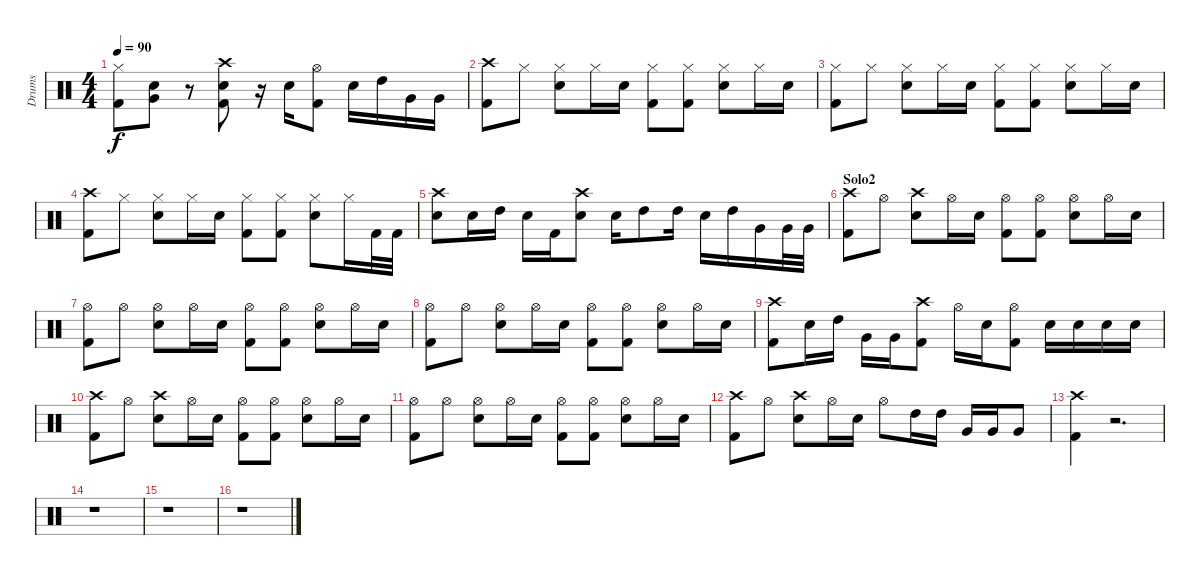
\track ("Drums" "Drums") {instrument percussion}
\staff {score}
\articulation defaults
\ts (4 4)
\tempo 90
\clef neutral
\ks c
("Hi-Hat (closed)" "Kick (hit) 2").8{dy f} ("Snare (hit) 2" "Very Low Tom (hit)").8 r.8 ("Crash high (hit)" "Snare (hit) 2" "Kick (hit) 2").8 r.16 "Snare (hit) 2".16 ("Hi-Hat (open)" "Kick (hit) 2").8 "Snare (hit) 2".16 "High Tom (hit)".16 "Very Low Tom (hit)".16 "Very Low Tom (hit)".16 |
("Crash high (hit)" "Kick (hit) 2").8 "Hi-Hat (closed)".8 ("Hi-Hat (closed)" "Snare (hit) 2").8 "Hi-Hat (closed)".16 "Snare (hit) 2".16 ("Hi-Hat (closed)" "Kick (hit) 2").8 ("Hi-Hat (closed)" "Kick (hit) 2").8 ("Hi-Hat (closed)" "Snare (hit) 2").8 "Hi-Hat (closed)".16 "Snare (hit) 2".16 |
("Hi-Hat (closed)" "Kick (hit) 2").8 "Hi-Hat (closed)".8 ("Hi-Hat (closed)" "Snare (hit) 2").8 "Hi-Hat (closed)".16 "Snare (hit) 2".16 ("Hi-Hat (closed)" "Kick (hit) 2").8 ("Hi-Hat (closed)" "Kick (hit) 2").8 ("Hi-Hat (closed)" "Snare (hit) 2").8 "Hi-Hat (closed)".16 "Snare (hit) 2".16 |
("Crash high (hit)" "Kick (hit) 2").8 "Hi-Hat (closed)".8 ("Hi-Hat (closed)" "Snare (hit) 2").8 "Hi-Hat (closed)".16 "Snare (hit) 2".16 ("Hi-Hat (closed)" "Kick (hit) 2").8 ("Hi-Hat (closed)" "Kick (hit) 2").8 ("Hi-Hat (closed)" "Snare (hit) 2").8 "Hi-Hat (closed)".16 "Kick (hit) 2".32 "Kick (hit) 2".32 |
("Crash high (hit)" "Snare (hit) 2").8 "Snare (hit) 2".16 "High Tom (hit)".16 "Snare (hit) 2".16 "Kick (hit) 2".16 ("Crash high (hit)" "Snare (hit) 2").8 "Snare (hit) 2".16 "High Tom (hit)".8 "High Tom (hit)".16 "Snare (hit) 2".16 "High Tom (hit)".16 "Very Low Tom (hit)".16 "Very Low Tom (hit)".32 "Very Low Tom (hit)".32 |
\section ("" "Solo2")
("Crash high (hit)" "Kick (hit) 2").8 "Hi-Hat (open)".8 ("Crash high (hit)" "Snare (hit) 2").8 "Hi-Hat (open)".16 "Snare (hit) 2".16 ("Hi-Hat (open)" "Kick (hit) 2").8 ("Hi-Hat (open)" "Kick (hit) 2").8 ("Hi-Hat (open)" "Snare (hit) 2").8 "Hi-Hat (open)".16 "Snare (hit) 2".16 |
("Hi-Hat (open)" "Kick (hit) 2").8 "Hi-Hat (open)".8 ("Hi-Hat (open)" "Snare (hit) 2").8 "Hi-Hat (open)".16 "Snare (hit) 2".16 ("Hi-Hat (open)" "Kick (hit) 2").8 ("Hi-Hat (open)" "Kick (hit) 2").8 ("Hi-Hat (open)" "Snare (hit) 2").8 "Hi-Hat (open)".16 "Snare (hit) 2".16 |
("Hi-Hat (open)" "Kick (hit) 2").8 "Hi-Hat (open)".8 ("Hi-Hat (open)" "Snare (hit) 2").8 "Hi-Hat (open)".16 "Snare (hit) 2".16 ("Hi-Hat (open)" "Kick (hit) 2").8 ("Hi-Hat (open)" "Kick (hit) 2").8 ("Hi-Hat (open)" "Snare (hit) 2").8 "Hi-Hat (open)".16 "Snare (hit) 2".16 |
("Crash high (hit)" "Kick (hit) 2").8 "Snare (hit) 2".16 "High Tom (hit)".16 "Very Low Tom (hit)".16 "Very Low Tom (hit)".16 ("Crash high (hit)" "Kick (hit) 2").8 "Hi-Hat (open)".16 "Snare (hit) 2".16 ("Hi-Hat (open)" "Kick (hit) 2").8 "Snare (hit) 2".16 "Snare (hit) 2".16 "Snare (hit) 2".16 "Snare (hit) 2".16 |
("Crash high (hit)" "Kick (hit) 2").8 "Hi-Hat (open)".8 ("Crash high (hit)" "Snare (hit) 2").8 "Hi-Hat (open)".16 "Snare (hit) 2".16 ("Hi-Hat (open)" "Kick (hit) 2").8 ("Hi-Hat (open)" "Kick (hit) 2").8 ("Hi-Hat (open)" "Snare (hit) 2").8 "Hi-Hat (open)".16 "Snare (hit) 2".16 |
("Hi-Hat (open)" "Kick (hit) 2").8 "Hi-Hat (open)".8 ("Hi-Hat (open)" "Snare (hit) 2").8 "Hi-Hat (open)".16 "Snare (hit) 2".16 ("Hi-Hat (open)" "Kick (hit) 2").8 ("Hi-Hat (open)" "Kick (hit) 2").8 ("Hi-Hat (open)" "Snare (hit) 2").8 "Hi-Hat (open)".16 "Snare (hit) 2".16 |
("Crash high (hit)" "Kick (hit) 2").8 "Hi-Hat (open)".8 ("Crash high (hit)" "Snare (hit) 2").8 "Hi-Hat (open)".16 "Snare (hit) 2".16 "Hi-Hat (open)".8 "High Tom (hit)".16 "High Tom (hit)".16 "Very Low Tom (hit)".16 "Very Low Tom (hit)".16 "Very Low Tom (hit)".8 |
("Crash high (hit)" "Kick (hit) 2").4 r.2{d} |
r.1 |
r.1 |
r.1
